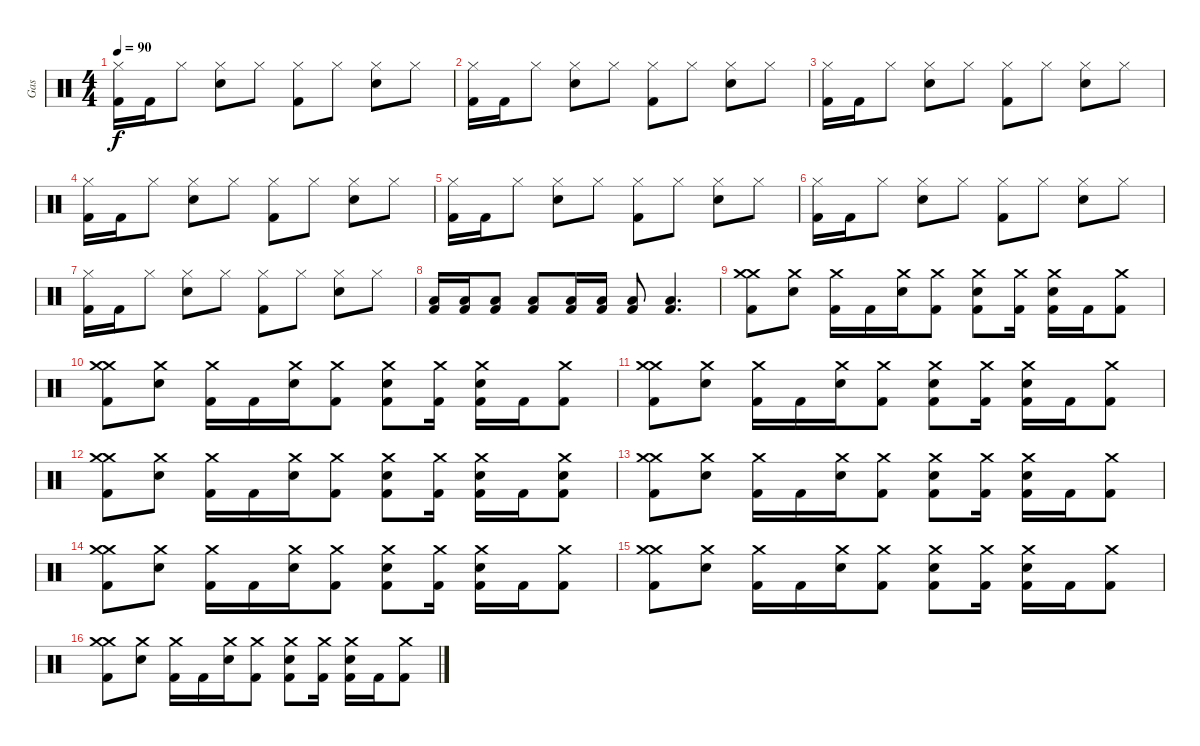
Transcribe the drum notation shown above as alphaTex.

\track ("Gas" "Gas") {instrument percussion}
\staff {score}
\articulation defaults
\ts (4 4)
\tempo 90
\clef neutral
\ks c
("Hi-Hat (closed)" "Kick (hit) 2").16{dy f} "Kick (hit) 2".16 "Hi-Hat (closed)".8 ("Snare (hit) 2" "Hi-Hat (closed)").8 "Hi-Hat (closed)".8 ("Hi-Hat (closed)" "Kick (hit) 2").8 "Hi-Hat (closed)".8 ("Snare (hit) 2" "Hi-Hat (closed)").8 "Hi-Hat (closed)".8 |
("Hi-Hat (closed)" "Kick (hit) 2").16 "Kick (hit) 2".16 "Hi-Hat (closed)".8 ("Snare (hit) 2" "Hi-Hat (closed)").8 "Hi-Hat (closed)".8 ("Hi-Hat (closed)" "Kick (hit) 2").8 "Hi-Hat (closed)".8 ("Snare (hit) 2" "Hi-Hat (closed)").8 "Hi-Hat (closed)".8 |
("Hi-Hat (closed)" "Kick (hit) 2").16 "Kick (hit) 2".16 "Hi-Hat (closed)".8 ("Snare (hit) 2" "Hi-Hat (closed)").8 "Hi-Hat (closed)".8 ("Hi-Hat (closed)" "Kick (hit) 2").8 "Hi-Hat (closed)".8 ("Snare (hit) 2" "Hi-Hat (closed)").8 "Hi-Hat (closed)".8 |
("Hi-Hat (closed)" "Kick (hit) 2").16 "Kick (hit) 2".16 "Hi-Hat (closed)".8 ("Snare (hit) 2" "Hi-Hat (closed)").8 "Hi-Hat (closed)".8 ("Hi-Hat (closed)" "Kick (hit) 2").8 "Hi-Hat (closed)".8 ("Snare (hit) 2" "Hi-Hat (closed)").8 "Hi-Hat (closed)".8 |
("Hi-Hat (closed)" "Kick (hit) 2").16 "Kick (hit) 2".16 "Hi-Hat (closed)".8 ("Snare (hit) 2" "Hi-Hat (closed)").8 "Hi-Hat (closed)".8 ("Hi-Hat (closed)" "Kick (hit) 2").8 "Hi-Hat (closed)".8 ("Snare (hit) 2" "Hi-Hat (closed)").8 "Hi-Hat (closed)".8 |
("Hi-Hat (closed)" "Kick (hit) 2").16 "Kick (hit) 2".16 "Hi-Hat (closed)".8 ("Snare (hit) 2" "Hi-Hat (closed)").8 "Hi-Hat (closed)".8 ("Hi-Hat (closed)" "Kick (hit) 2").8 "Hi-Hat (closed)".8 ("Snare (hit) 2" "Hi-Hat (closed)").8 "Hi-Hat (closed)".8 |
("Hi-Hat (closed)" "Kick (hit) 2").16 "Kick (hit) 2".16 "Hi-Hat (closed)".8 ("Snare (hit) 2" "Hi-Hat (closed)").8 "Hi-Hat (closed)".8 ("Hi-Hat (closed)" "Kick (hit) 2").8 "Hi-Hat (closed)".8 ("Snare (hit) 2" "Hi-Hat (closed)").8 "Hi-Hat (closed)".8 |
("Low Floor Tom (hit)" "Kick (hit) 2").16 ("Low Floor Tom (hit)" "Kick (hit) 2").16 ("Low Floor Tom (hit)" "Kick (hit) 2").8 ("Low Floor Tom (hit)" "Kick (hit) 2").8 ("Low Floor Tom (hit)" "Kick (hit) 2").16 ("Low Floor Tom (hit)" "Kick (hit) 2").16 ("Low Floor Tom (hit)" "Kick (hit) 2").8 ("Low Floor Tom (hit)" "Kick (hit) 2").4{d} |
("Crash medium (hit)" "Crash medium (hit)" "Kick (hit) 2").8 ("Snare (hit) 2" "Crash medium (hit)").8 ("Crash medium (hit)" "Kick (hit) 2").16 "Kick (hit) 2".16 ("Snare (hit) 2" "Crash medium (hit)").16 ("Crash medium (hit)" "Kick (hit) 2").8 ("Snare (hit) 2" "Crash medium (hit)" "Kick (hit) 2").8 ("Crash medium (hit)" "Kick (hit) 2").16 ("Snare (hit) 2" "Crash medium (hit)" "Kick (hit) 2").16 "Kick (hit) 2".16 ("Crash medium (hit)" "Kick (hit) 2").8 |
("Crash medium (hit)" "Crash medium (hit)" "Kick (hit) 2").8 ("Snare (hit) 2" "Crash medium (hit)").8 ("Crash medium (hit)" "Kick (hit) 2").16 "Kick (hit) 2".16 ("Snare (hit) 2" "Crash medium (hit)").16 ("Crash medium (hit)" "Kick (hit) 2").8 ("Snare (hit) 2" "Crash medium (hit)" "Kick (hit) 2").8 ("Crash medium (hit)" "Kick (hit) 2").16 ("Snare (hit) 2" "Crash medium (hit)" "Kick (hit) 2").16 "Kick (hit) 2".16 ("Crash medium (hit)" "Kick (hit) 2").8 |
("Crash medium (hit)" "Crash medium (hit)" "Kick (hit) 2").8 ("Snare (hit) 2" "Crash medium (hit)").8 ("Crash medium (hit)" "Kick (hit) 2").16 "Kick (hit) 2".16 ("Snare (hit) 2" "Crash medium (hit)").16 ("Crash medium (hit)" "Kick (hit) 2").8 ("Snare (hit) 2" "Crash medium (hit)" "Kick (hit) 2").8 ("Crash medium (hit)" "Kick (hit) 2").16 ("Snare (hit) 2" "Crash medium (hit)" "Kick (hit) 2").16 "Kick (hit) 2".16 ("Crash medium (hit)" "Kick (hit) 2").8 |
("Crash medium (hit)" "Crash medium (hit)" "Kick (hit) 2").8 ("Snare (hit) 2" "Crash medium (hit)").8 ("Crash medium (hit)" "Kick (hit) 2").16 "Kick (hit) 2".16 ("Snare (hit) 2" "Crash medium (hit)").16 ("Crash medium (hit)" "Kick (hit) 2").8 ("Snare (hit) 2" "Crash medium (hit)" "Kick (hit) 2").8 ("Crash medium (hit)" "Kick (hit) 2").16 ("Snare (hit) 2" "Crash medium (hit)" "Kick (hit) 2").16 "Kick (hit) 2".16 ("Snare (hit) 2" "Crash medium (hit)" "Kick (hit) 2").8 |
("Crash medium (hit)" "Crash medium (hit)" "Kick (hit) 2").8 ("Snare (hit) 2" "Crash medium (hit)").8 ("Crash medium (hit)" "Kick (hit) 2").16 "Kick (hit) 2".16 ("Snare (hit) 2" "Crash medium (hit)").16 ("Crash medium (hit)" "Kick (hit) 2").8 ("Snare (hit) 2" "Crash medium (hit)" "Kick (hit) 2").8 ("Crash medium (hit)" "Kick (hit) 2").16 ("Snare (hit) 2" "Crash medium (hit)" "Kick (hit) 2").16 "Kick (hit) 2".16 ("Crash medium (hit)" "Kick (hit) 2").8 |
("Crash medium (hit)" "Crash medium (hit)" "Kick (hit) 2").8 ("Snare (hit) 2" "Crash medium (hit)").8 ("Crash medium (hit)" "Kick (hit) 2").16 "Kick (hit) 2".16 ("Snare (hit) 2" "Crash medium (hit)").16 ("Crash medium (hit)" "Kick (hit) 2").8 ("Snare (hit) 2" "Crash medium (hit)" "Kick (hit) 2").8 ("Crash medium (hit)" "Kick (hit) 2").16 ("Snare (hit) 2" "Crash medium (hit)" "Kick (hit) 2").16 "Kick (hit) 2".16 ("Crash medium (hit)" "Kick (hit) 2").8 |
("Crash medium (hit)" "Crash medium (hit)" "Kick (hit) 2").8 ("Snare (hit) 2" "Crash medium (hit)").8 ("Crash medium (hit)" "Kick (hit) 2").16 "Kick (hit) 2".16 ("Snare (hit) 2" "Crash medium (hit)").16 ("Crash medium (hit)" "Kick (hit) 2").8 ("Snare (hit) 2" "Crash medium (hit)" "Kick (hit) 2").8 ("Crash medium (hit)" "Kick (hit) 2").16 ("Snare (hit) 2" "Crash medium (hit)" "Kick (hit) 2").16 "Kick (hit) 2".16 ("Crash medium (hit)" "Kick (hit) 2").8 |
("Crash medium (hit)" "Crash medium (hit)" "Kick (hit) 2").8 ("Snare (hit) 2" "Crash medium (hit)").8 ("Crash medium (hit)" "Kick (hit) 2").16 "Kick (hit) 2".16 ("Snare (hit) 2" "Crash medium (hit)").16 ("Crash medium (hit)" "Kick (hit) 2").8 ("Snare (hit) 2" "Crash medium (hit)" "Kick (hit) 2").8 ("Crash medium (hit)" "Kick (hit) 2").16 ("Snare (hit) 2" "Crash medium (hit)" "Kick (hit) 2").16 "Kick (hit) 2".16 ("Crash medium (hit)" "Kick (hit) 2").8
